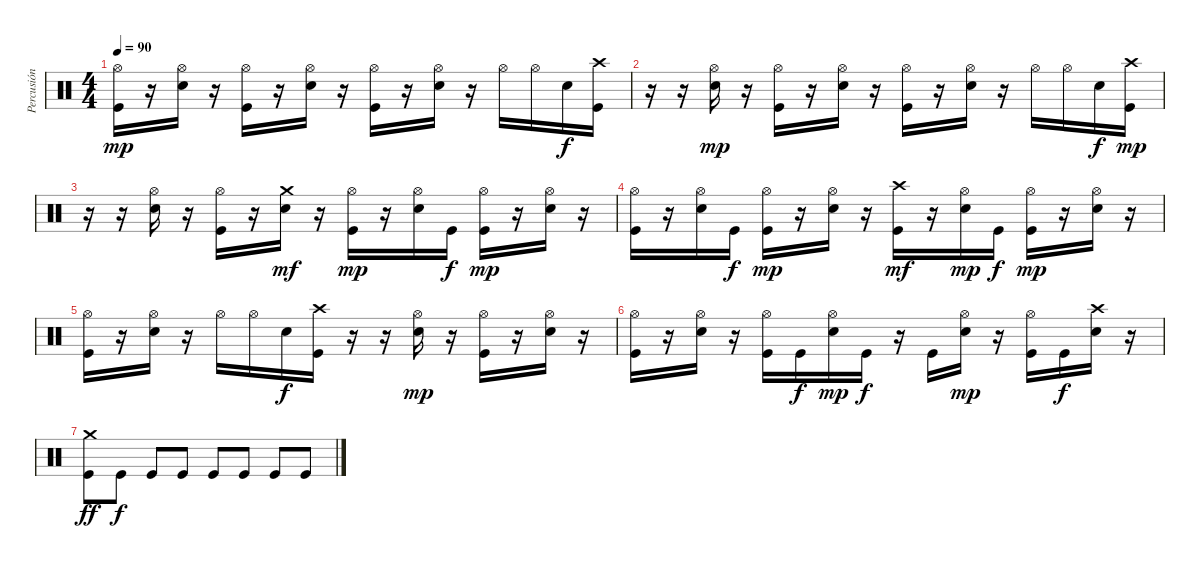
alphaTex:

\track ("Percusión" "Percusión") {instrument percussion}
\staff {score}
\articulation defaults
\ts (4 4)
\tempo 90
\clef neutral
\ks c
("Hi-Hat (open)" "Kick (hit)").16{dy mp} r.16 ("Hi-Hat (open)" "Snare (hit) 2").16 r.16 ("Hi-Hat (open)" "Kick (hit)").16 r.16 ("Hi-Hat (open)" "Snare (hit) 2").16 r.16 ("Hi-Hat (open)" "Kick (hit)").16 r.16 ("Hi-Hat (open)" "Snare (hit) 2").16 r.16 "Hi-Hat (open)".16 "Hi-Hat (open)".16 "Snare (hit) 2".16{dy f} ("Crash high (hit)" "Kick (hit)").16 |
r.16 r.16 ("Hi-Hat (open)" "Snare (hit) 2").16{dy mp} r.16 ("Hi-Hat (open)" "Kick (hit)").16 r.16 ("Hi-Hat (open)" "Snare (hit) 2").16 r.16 ("Hi-Hat (open)" "Kick (hit)").16 r.16 ("Hi-Hat (open)" "Snare (hit) 2").16 r.16 "Hi-Hat (open)".16 "Hi-Hat (open)".16 "Snare (hit) 2".16{dy f} ("Crash high (hit)" "Kick (hit)").16{dy mp} |
r.16 r.16 ("Hi-Hat (open)" "Snare (hit) 2").16 r.16 ("Hi-Hat (open)" "Kick (hit)").16 r.16 ("Crash medium (hit)" "Snare (hit) 2").16{dy mf} r.16 ("Hi-Hat (open)" "Kick (hit)").16{dy mp} r.16 ("Hi-Hat (open)" "Snare (hit) 2").16 "Kick (hit)".16{dy f} ("Hi-Hat (open)" "Kick (hit)").16{dy mp} r.16 ("Hi-Hat (open)" "Snare (hit) 2").16 r.16 |
("Hi-Hat (open)" "Kick (hit)").16 r.16 ("Hi-Hat (open)" "Snare (hit) 2").16 "Kick (hit)".16{dy f} ("Hi-Hat (open)" "Kick (hit)").16{dy mp} r.16 ("Hi-Hat (open)" "Snare (hit) 2").16 r.16 ("Crash high (hit)" "Kick (hit)").16{dy mf} r.16 ("Hi-Hat (open)" "Snare (hit) 2").16{dy mp} "Kick (hit)".16{dy f} ("Hi-Hat (open)" "Kick (hit)").16{dy mp} r.16 ("Hi-Hat (open)" "Snare (hit) 2").16 r.16 |
("Hi-Hat (open)" "Kick (hit)").16 r.16 ("Hi-Hat (open)" "Snare (hit) 2").16 r.16 "Hi-Hat (open)".16 "Hi-Hat (open)".16 "Snare (hit) 2".16{dy f} ("Crash high (hit)" "Kick (hit)").16 r.16 r.16 ("Hi-Hat (open)" "Snare (hit) 2").16{dy mp} r.16 ("Hi-Hat (open)" "Kick (hit)").16 r.16 ("Hi-Hat (open)" "Snare (hit) 2").16 r.16 |
("Hi-Hat (open)" "Kick (hit)").16 r.16 ("Hi-Hat (open)" "Snare (hit) 2").16 r.16 ("Hi-Hat (open)" "Kick (hit)").16 "Kick (hit)".16{dy f} ("Hi-Hat (open)" "Snare (hit) 2").16{dy mp} "Kick (hit)".16{dy f} r.16 "Kick (hit)".16 ("Hi-Hat (open)" "Snare (hit) 2").16{dy mp} r.16 ("Hi-Hat (open)" "Kick (hit)").16 "Kick (hit)".16{dy f} ("Crash high (hit)" "Snare (hit) 2").16 r.16 |
("Crash medium (hit)" "Kick (hit)").8{dy ff} "Kick (hit)".8{dy f} "Kick (hit)".8 "Kick (hit)".8 "Kick (hit)".8 "Kick (hit)".8 "Kick (hit)".8 "Kick (hit)".8
